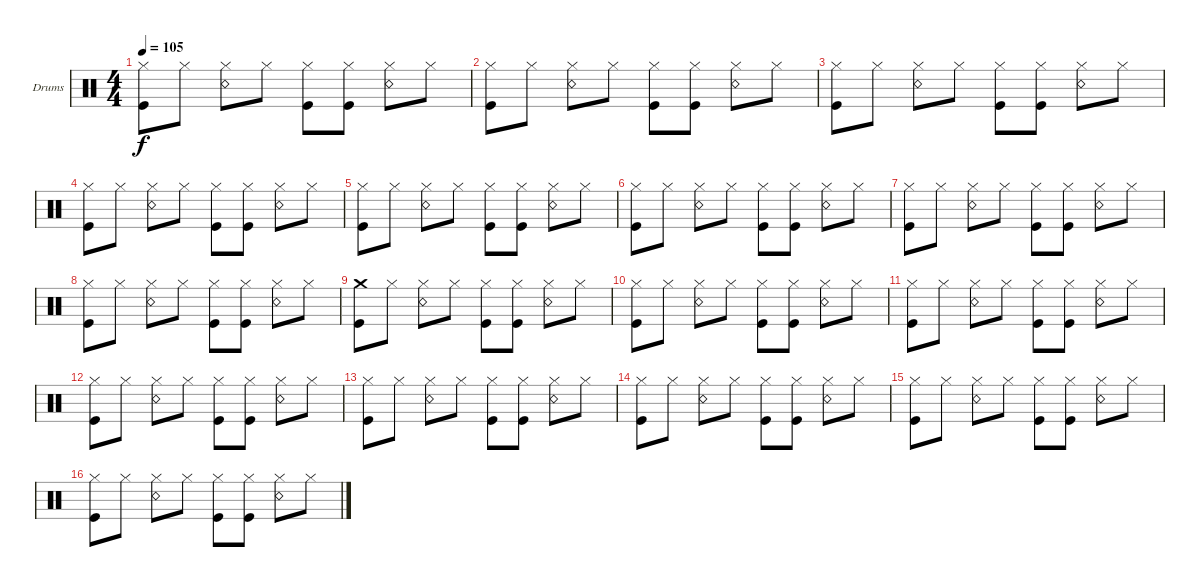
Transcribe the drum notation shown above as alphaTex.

\defaultSystemsLayout 4
\bracketExtendMode groupsimilarinstruments
\firstSystemTrackNameOrientation horizontal
\otherSystemsTrackNameOrientation horizontal
\track ("Drumkit" "Drums") {instrument percussion}
\staff {score}
\articulation defaults
\ts (4 4)
\tempo 105
\clef neutral
\scale
0.333333
\ks c
("Hi-Hat (closed)" "Kick (hit)").8{dy f} "Hi-Hat (closed)".8 ("Hi-Hat (closed)" "Snare (rim shot)").8 "Hi-Hat (closed)".8 ("Hi-Hat (closed)" "Kick (hit)").8 ("Hi-Hat (closed)" "Kick (hit)").8 ("Hi-Hat (closed)" "Snare (rim shot)").8 "Hi-Hat (closed)".8 |
\scale
0.333333 ("Hi-Hat (closed)" "Kick (hit)").8 "Hi-Hat (closed)".8 ("Hi-Hat (closed)" "Snare (rim shot)").8 "Hi-Hat (closed)".8 ("Hi-Hat (closed)" "Kick (hit)").8 ("Hi-Hat (closed)" "Kick (hit)").8 ("Hi-Hat (closed)" "Snare (rim shot)").8 "Hi-Hat (closed)".8 |
\scale
0.333333 ("Hi-Hat (closed)" "Kick (hit)").8 "Hi-Hat (closed)".8 ("Hi-Hat (closed)" "Snare (rim shot)").8 "Hi-Hat (closed)".8 ("Hi-Hat (closed)" "Kick (hit)").8 ("Hi-Hat (closed)" "Kick (hit)").8 ("Hi-Hat (closed)" "Snare (rim shot)").8 "Hi-Hat (closed)".8 |
\scale
0.333333 ("Hi-Hat (closed)" "Kick (hit)").8 "Hi-Hat (closed)".8 ("Hi-Hat (closed)" "Snare (rim shot)").8 "Hi-Hat (closed)".8 ("Hi-Hat (closed)" "Kick (hit)").8 ("Hi-Hat (closed)" "Kick (hit)").8 ("Hi-Hat (closed)" "Snare (rim shot)").8 "Hi-Hat (closed)".8 |
\scale
0.333333 ("Hi-Hat (closed)" "Kick (hit)").8 "Hi-Hat (closed)".8 ("Hi-Hat (closed)" "Snare (rim shot)").8 "Hi-Hat (closed)".8 ("Hi-Hat (closed)" "Kick (hit)").8 ("Hi-Hat (closed)" "Kick (hit)").8 ("Hi-Hat (closed)" "Snare (rim shot)").8 "Hi-Hat (closed)".8 |
\scale
0.333333 ("Hi-Hat (closed)" "Kick (hit)").8 "Hi-Hat (closed)".8 ("Hi-Hat (closed)" "Snare (rim shot)").8 "Hi-Hat (closed)".8 ("Hi-Hat (closed)" "Kick (hit)").8 ("Hi-Hat (closed)" "Kick (hit)").8 ("Hi-Hat (closed)" "Snare (rim shot)").8 "Hi-Hat (closed)".8 |
\scale
0.333333 ("Hi-Hat (closed)" "Kick (hit)").8 "Hi-Hat (closed)".8 ("Hi-Hat (closed)" "Snare (rim shot)").8 "Hi-Hat (closed)".8 ("Hi-Hat (closed)" "Kick (hit)").8 ("Hi-Hat (closed)" "Kick (hit)").8 ("Hi-Hat (closed)" "Snare (rim shot)").8 "Hi-Hat (closed)".8 |
\scale
0.333333 ("Hi-Hat (closed)" "Kick (hit)").8 "Hi-Hat (closed)".8 ("Hi-Hat (closed)" "Snare (rim shot)").8 "Hi-Hat (closed)".8 ("Hi-Hat (closed)" "Kick (hit)").8 ("Hi-Hat (closed)" "Kick (hit)").8 ("Hi-Hat (closed)" "Snare (rim shot)").8 "Hi-Hat (closed)".8 |
\scale
0.333333 ("Kick (hit)" "Crash medium (hit)").8 "Hi-Hat (closed)".8 ("Hi-Hat (closed)" "Snare (rim shot)").8 "Hi-Hat (closed)".8 ("Hi-Hat (closed)" "Kick (hit)").8 ("Hi-Hat (closed)" "Kick (hit)").8 ("Hi-Hat (closed)" "Snare (rim shot)").8 "Hi-Hat (closed)".8 |
\scale
0.333333 ("Hi-Hat (closed)" "Kick (hit)").8 "Hi-Hat (closed)".8 ("Hi-Hat (closed)" "Snare (rim shot)").8 "Hi-Hat (closed)".8 ("Hi-Hat (closed)" "Kick (hit)").8 ("Hi-Hat (closed)" "Kick (hit)").8 ("Hi-Hat (closed)" "Snare (rim shot)").8 "Hi-Hat (closed)".8 |
\scale
0.333333 ("Hi-Hat (closed)" "Kick (hit)").8 "Hi-Hat (closed)".8 ("Hi-Hat (closed)" "Snare (rim shot)").8 "Hi-Hat (closed)".8 ("Hi-Hat (closed)" "Kick (hit)").8 ("Hi-Hat (closed)" "Kick (hit)").8 ("Hi-Hat (closed)" "Snare (rim shot)").8 "Hi-Hat (closed)".8 |
\scale
0.333333 ("Hi-Hat (closed)" "Kick (hit)").8 "Hi-Hat (closed)".8 ("Hi-Hat (closed)" "Snare (rim shot)").8 "Hi-Hat (closed)".8 ("Hi-Hat (closed)" "Kick (hit)").8 ("Hi-Hat (closed)" "Kick (hit)").8 ("Hi-Hat (closed)" "Snare (rim shot)").8 "Hi-Hat (closed)".8 |
\scale
0.333333 ("Kick (hit)" "Hi-Hat (closed)").8 "Hi-Hat (closed)".8 ("Hi-Hat (closed)" "Snare (rim shot)").8 "Hi-Hat (closed)".8 ("Hi-Hat (closed)" "Kick (hit)").8 ("Hi-Hat (closed)" "Kick (hit)").8 ("Hi-Hat (closed)" "Snare (rim shot)").8 "Hi-Hat (closed)".8 |
\scale
0.333333 ("Hi-Hat (closed)" "Kick (hit)").8 "Hi-Hat (closed)".8 ("Hi-Hat (closed)" "Snare (rim shot)").8 "Hi-Hat (closed)".8 ("Hi-Hat (closed)" "Kick (hit)").8 ("Hi-Hat (closed)" "Kick (hit)").8 ("Hi-Hat (closed)" "Snare (rim shot)").8 "Hi-Hat (closed)".8 |
\scale
0.333333 ("Hi-Hat (closed)" "Kick (hit)").8 "Hi-Hat (closed)".8 ("Hi-Hat (closed)" "Snare (rim shot)").8 "Hi-Hat (closed)".8 ("Hi-Hat (closed)" "Kick (hit)").8 ("Hi-Hat (closed)" "Kick (hit)").8 ("Hi-Hat (closed)" "Snare (rim shot)").8 "Hi-Hat (closed)".8 |
\scale
0.333333 ("Hi-Hat (closed)" "Kick (hit)").8 "Hi-Hat (closed)".8 ("Hi-Hat (closed)" "Snare (rim shot)").8 "Hi-Hat (closed)".8 ("Hi-Hat (closed)" "Kick (hit)").8 ("Hi-Hat (closed)" "Kick (hit)").8 ("Hi-Hat (closed)" "Snare (rim shot)").8 "Hi-Hat (closed)".8
